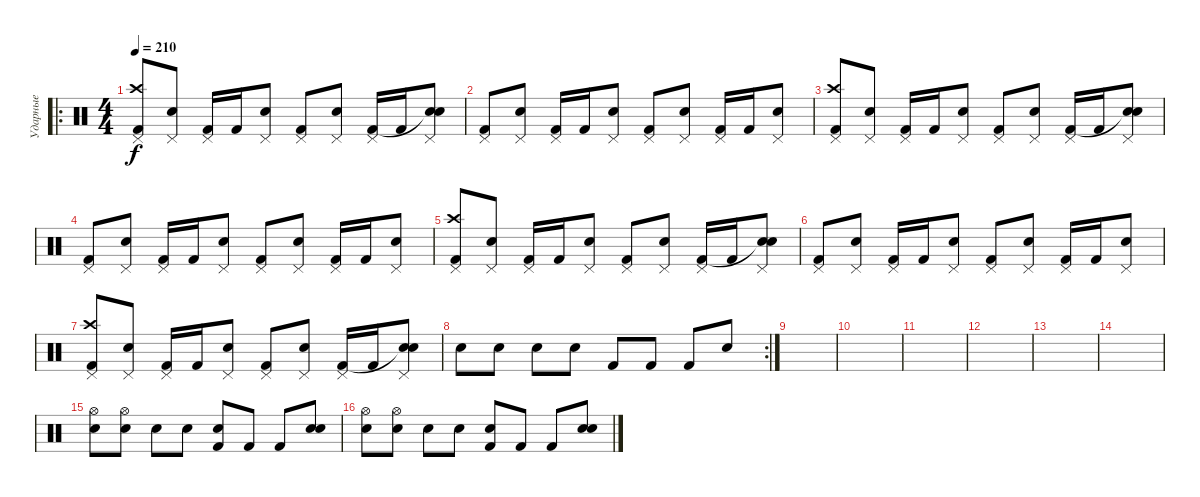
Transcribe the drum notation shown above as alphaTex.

\track ("Ударные" "Ударные") {instrument percussion}
\staff {score}
\articulation defaults
\ro
\ts (4 4)
\tempo 210
\clef neutral
\ks c
("Pedal Hi-Hat (hit)" "Crash high (hit)" "Kick (hit) 2").8{dy f} ("Pedal Hi-Hat (hit)" "Snare (hit) 2").8 ("Pedal Hi-Hat (hit)" "Kick (hit) 2").16 "Kick (hit) 2".16 ("Pedal Hi-Hat (hit)" "Snare (hit) 2").8 ("Pedal Hi-Hat (hit)" "Kick (hit) 2").8 ("Pedal Hi-Hat (hit)" "Snare (hit) 2").8 ("Pedal Hi-Hat (hit)" "Kick (hit) 2").16 "Kick (hit) 2".16 ("Pedal Hi-Hat (hit)" "Snare (hit)"{t} "Snare (hit) 2").8 |
("Pedal Hi-Hat (hit)" "Kick (hit) 2").8 ("Pedal Hi-Hat (hit)" "Snare (hit) 2").8 ("Pedal Hi-Hat (hit)" "Kick (hit) 2").16 "Kick (hit) 2".16 ("Pedal Hi-Hat (hit)" "Snare (hit) 2").8 ("Pedal Hi-Hat (hit)" "Kick (hit) 2").8 ("Pedal Hi-Hat (hit)" "Snare (hit) 2").8 ("Pedal Hi-Hat (hit)" "Kick (hit) 2").16 "Kick (hit) 2".16 ("Pedal Hi-Hat (hit)" "Snare (hit) 2").8 |
("Pedal Hi-Hat (hit)" "Crash high (hit)" "Kick (hit) 2").8 ("Pedal Hi-Hat (hit)" "Snare (hit) 2").8 ("Pedal Hi-Hat (hit)" "Kick (hit) 2").16 "Kick (hit) 2".16 ("Pedal Hi-Hat (hit)" "Snare (hit) 2").8 ("Pedal Hi-Hat (hit)" "Kick (hit) 2").8 ("Pedal Hi-Hat (hit)" "Snare (hit) 2").8 ("Pedal Hi-Hat (hit)" "Kick (hit) 2").16 "Kick (hit) 2".16 ("Pedal Hi-Hat (hit)" "Snare (hit)"{t} "Snare (hit) 2").8 |
("Pedal Hi-Hat (hit)" "Kick (hit) 2").8 ("Pedal Hi-Hat (hit)" "Snare (hit) 2").8 ("Pedal Hi-Hat (hit)" "Kick (hit) 2").16 "Kick (hit) 2".16 ("Pedal Hi-Hat (hit)" "Snare (hit) 2").8 ("Pedal Hi-Hat (hit)" "Kick (hit) 2").8 ("Pedal Hi-Hat (hit)" "Snare (hit) 2").8 ("Pedal Hi-Hat (hit)" "Kick (hit) 2").16 "Kick (hit) 2".16 ("Pedal Hi-Hat (hit)" "Snare (hit) 2").8 |
("Pedal Hi-Hat (hit)" "Crash high (hit)" "Kick (hit) 2").8 ("Pedal Hi-Hat (hit)" "Snare (hit) 2").8 ("Pedal Hi-Hat (hit)" "Kick (hit) 2").16 "Kick (hit) 2".16 ("Pedal Hi-Hat (hit)" "Snare (hit) 2").8 ("Pedal Hi-Hat (hit)" "Kick (hit) 2").8 ("Pedal Hi-Hat (hit)" "Snare (hit) 2").8 ("Pedal Hi-Hat (hit)" "Kick (hit) 2").16 "Kick (hit) 2".16 ("Pedal Hi-Hat (hit)" "Snare (hit)"{t} "Snare (hit) 2").8 |
("Pedal Hi-Hat (hit)" "Kick (hit) 2").8 ("Pedal Hi-Hat (hit)" "Snare (hit) 2").8 ("Pedal Hi-Hat (hit)" "Kick (hit) 2").16 "Kick (hit) 2".16 ("Pedal Hi-Hat (hit)" "Snare (hit) 2").8 ("Pedal Hi-Hat (hit)" "Kick (hit) 2").8 ("Pedal Hi-Hat (hit)" "Snare (hit) 2").8 ("Pedal Hi-Hat (hit)" "Kick (hit) 2").16 "Kick (hit) 2".16 ("Pedal Hi-Hat (hit)" "Snare (hit) 2").8 |
("Pedal Hi-Hat (hit)" "Crash high (hit)" "Kick (hit) 2").8 ("Pedal Hi-Hat (hit)" "Snare (hit) 2").8 ("Pedal Hi-Hat (hit)" "Kick (hit) 2").16 "Kick (hit) 2".16 ("Pedal Hi-Hat (hit)" "Snare (hit) 2").8 ("Pedal Hi-Hat (hit)" "Kick (hit) 2").8 ("Pedal Hi-Hat (hit)" "Snare (hit) 2").8 ("Pedal Hi-Hat (hit)" "Kick (hit) 2").16 "Kick (hit) 2".16 ("Pedal Hi-Hat (hit)" "Snare (hit)"{t} "Snare (hit) 2").8 |
\rc 2 "Snare (hit) 2".8 "Snare (hit) 2".8 "Snare (hit) 2".8 "Snare (hit) 2".8 "Kick (hit) 2".8 "Kick (hit) 2".8 "Kick (hit) 2".8 "Snare (hit) 2".8
|
|
|
|
|
|
|
("Hi-Hat (open)" "Electric Snare (hit)").8 ("Hi-Hat (open)" "Electric Snare (hit)").8 "Snare (hit) 2".8 "Snare (hit) 2".8 ("Kick (hit) 2" "Snare (hit) 2").8 "Kick (hit) 2".8 "Kick (hit) 2".8 ("Snare (hit) 2" "Snare (hit) 2").8 |
("Hi-Hat (open)" "Electric Snare (hit)").8 ("Hi-Hat (open)" "Electric Snare (hit)").8 "Snare (hit) 2".8 "Snare (hit) 2".8 ("Kick (hit) 2" "Snare (hit) 2").8 "Kick (hit) 2".8 "Kick (hit) 2".8 ("Snare (hit) 2" "Snare (hit) 2").8
